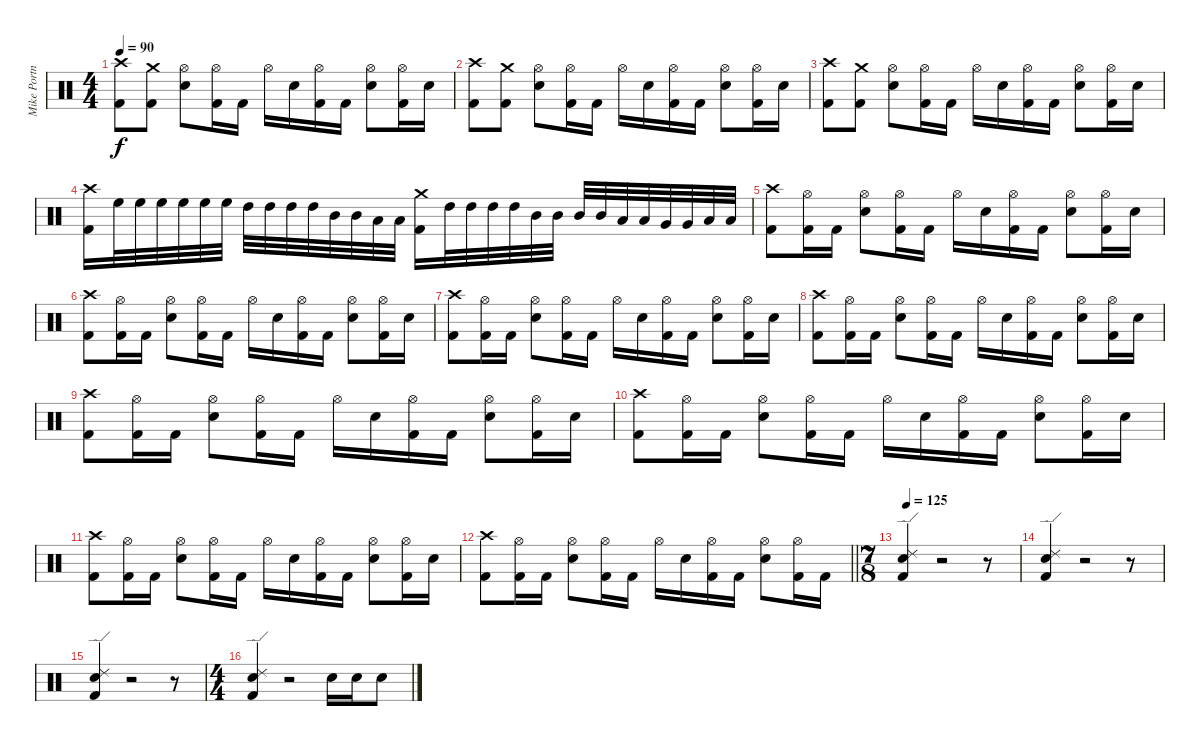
\track ("Mike Portnoy" "Mike Portn") {instrument percussion}
\staff {score}
\articulation defaults
\ts (4 4)
\tempo 90
\clef neutral
\ks c
("Crash high (hit)" "Kick (hit) 2").8{dy f} ("Crash medium (hit)" "Kick (hit) 2").8 ("Hi-Hat (open)" "Snare (hit) 2").8 ("Hi-Hat (open)" "Kick (hit) 2").16 "Kick (hit) 2".16 "Hi-Hat (open)".16 "Snare (hit) 2".16 ("Hi-Hat (open)" "Kick (hit) 2").16 "Kick (hit) 2".16 ("Hi-Hat (open)" "Snare (hit) 2").8 ("Hi-Hat (open)" "Kick (hit) 2").16 "Snare (hit) 2".16 |
("Crash high (hit)" "Kick (hit) 2").8 ("Crash medium (hit)" "Kick (hit) 2").8 ("Hi-Hat (open)" "Snare (hit) 2").8 ("Hi-Hat (open)" "Kick (hit) 2").16 "Kick (hit) 2".16 "Hi-Hat (open)".16 "Snare (hit) 2".16 ("Hi-Hat (open)" "Kick (hit) 2").16 "Kick (hit) 2".16 ("Hi-Hat (open)" "Snare (hit) 2").8 ("Hi-Hat (open)" "Kick (hit) 2").16 "Snare (hit) 2".16 |
("Crash high (hit)" "Kick (hit) 2").8 ("Crash medium (hit)" "Kick (hit) 2").8 ("Hi-Hat (open)" "Snare (hit) 2").8 ("Hi-Hat (open)" "Kick (hit) 2").16 "Kick (hit) 2".16 "Hi-Hat (open)".16 "Snare (hit) 2".16 ("Hi-Hat (open)" "Kick (hit) 2").16 "Kick (hit) 2".16 ("Hi-Hat (open)" "Snare (hit) 2").8 ("Hi-Hat (open)" "Kick (hit) 2").16 "Snare (hit) 2".16 |
("Crash high (hit)" "Kick (hit) 2").16 "High Floor Tom (hit)".32 "High Floor Tom (hit)".32 "High Floor Tom (hit)".32 "High Floor Tom (hit)".32 "High Floor Tom (hit)".32 "High Floor Tom (hit)".32 "High Tom (hit)".32 "High Tom (hit)".32 "High Tom (hit)".32 "High Tom (hit)".32 "Mid Tom (hit)".32 "Mid Tom (hit)".32 "Low Tom (hit)".32 "Low Tom (hit)".32 ("Crash medium (hit)" "Kick (hit) 2").16 "High Tom (hit)".32 "High Tom (hit)".32 "High Tom (hit)".32 "High Tom (hit)".32 "Mid Tom (hit)".32 "Mid Tom (hit)".32 "Mid Tom (hit)".32 "Mid Tom (hit)".32 "Low Tom (hit)".32 "Low Tom (hit)".32 "Very Low Tom (hit)".32 "Very Low Tom (hit)".32 "Low Floor Tom (hit)".32 "Low Floor Tom (hit)".32 |
("Crash high (hit)" "Kick (hit) 2").8 ("Hi-Hat (open)" "Kick (hit) 2").16 "Kick (hit) 2".16 ("Hi-Hat (open)" "Snare (hit) 2").8 ("Hi-Hat (open)" "Kick (hit) 2").16 "Kick (hit) 2".16 "Hi-Hat (open)".16 "Snare (hit) 2".16 ("Hi-Hat (open)" "Kick (hit) 2").16 "Kick (hit) 2".16 ("Hi-Hat (open)" "Snare (hit) 2").8 ("Hi-Hat (open)" "Kick (hit) 2").16 "Snare (hit) 2".16 |
("Crash high (hit)" "Kick (hit) 2").8 ("Hi-Hat (open)" "Kick (hit) 2").16 "Kick (hit) 2".16 ("Hi-Hat (open)" "Snare (hit) 2").8 ("Hi-Hat (open)" "Kick (hit) 2").16 "Kick (hit) 2".16 "Hi-Hat (open)".16 "Snare (hit) 2".16 ("Hi-Hat (open)" "Kick (hit) 2").16 "Kick (hit) 2".16 ("Hi-Hat (open)" "Snare (hit) 2").8 ("Hi-Hat (open)" "Kick (hit) 2").16 "Snare (hit) 2".16 |
("Crash high (hit)" "Kick (hit) 2").8 ("Hi-Hat (open)" "Kick (hit) 2").16 "Kick (hit) 2".16 ("Hi-Hat (open)" "Snare (hit) 2").8 ("Hi-Hat (open)" "Kick (hit) 2").16 "Kick (hit) 2".16 "Hi-Hat (open)".16 "Snare (hit) 2".16 ("Hi-Hat (open)" "Kick (hit) 2").16 "Kick (hit) 2".16 ("Hi-Hat (open)" "Snare (hit) 2").8 ("Hi-Hat (open)" "Kick (hit) 2").16 "Snare (hit) 2".16 |
("Crash high (hit)" "Kick (hit) 2").8 ("Hi-Hat (open)" "Kick (hit) 2").16 "Kick (hit) 2".16 ("Hi-Hat (open)" "Snare (hit) 2").8 ("Hi-Hat (open)" "Kick (hit) 2").16 "Kick (hit) 2".16 "Hi-Hat (open)".16 "Snare (hit) 2".16 ("Hi-Hat (open)" "Kick (hit) 2").16 "Kick (hit) 2".16 ("Hi-Hat (open)" "Snare (hit) 2").8 ("Hi-Hat (open)" "Kick (hit) 2").16 "Snare (hit) 2".16 |
("Crash high (hit)" "Kick (hit) 2").8 ("Hi-Hat (open)" "Kick (hit) 2").16 "Kick (hit) 2".16 ("Hi-Hat (open)" "Snare (hit) 2").8 ("Hi-Hat (open)" "Kick (hit) 2").16 "Kick (hit) 2".16 "Hi-Hat (open)".16 "Snare (hit) 2".16 ("Hi-Hat (open)" "Kick (hit) 2").16 "Kick (hit) 2".16 ("Hi-Hat (open)" "Snare (hit) 2").8 ("Hi-Hat (open)" "Kick (hit) 2").16 "Snare (hit) 2".16 |
("Crash high (hit)" "Kick (hit) 2").8 ("Hi-Hat (open)" "Kick (hit) 2").16 "Kick (hit) 2".16 ("Hi-Hat (open)" "Snare (hit) 2").8 ("Hi-Hat (open)" "Kick (hit) 2").16 "Kick (hit) 2".16 "Hi-Hat (open)".16 "Snare (hit) 2".16 ("Hi-Hat (open)" "Kick (hit) 2").16 "Kick (hit) 2".16 ("Hi-Hat (open)" "Snare (hit) 2").8 ("Hi-Hat (open)" "Kick (hit) 2").16 "Snare (hit) 2".16 |
("Crash high (hit)" "Kick (hit) 2").8 ("Hi-Hat (open)" "Kick (hit) 2").16 "Kick (hit) 2".16 ("Hi-Hat (open)" "Snare (hit) 2").8 ("Hi-Hat (open)" "Kick (hit) 2").16 "Kick (hit) 2".16 "Hi-Hat (open)".16 "Snare (hit) 2".16 ("Hi-Hat (open)" "Kick (hit) 2").16 "Kick (hit) 2".16 ("Hi-Hat (open)" "Snare (hit) 2").8 ("Hi-Hat (open)" "Kick (hit) 2").16 "Snare (hit) 2".16 |
\barLineRight lightlight
("Crash high (hit)" "Kick (hit) 2").8 ("Hi-Hat (open)" "Kick (hit) 2").16 "Kick (hit) 2".16 ("Hi-Hat (open)" "Snare (hit) 2").8 ("Hi-Hat (open)" "Kick (hit) 2").16 "Kick (hit) 2".16 "Hi-Hat (open)".16 "Snare (hit) 2".16 ("Hi-Hat (open)" "Kick (hit) 2").16 "Kick (hit) 2".16 ("Hi-Hat (open)" "Snare (hit) 2").8 ("Hi-Hat (open)" "Kick (hit) 2").16 "Kick (hit) 2".16 |
\ts (7 8)
\tempo 125
("Ride (edge) 2" "Snare (hit) 2" "Kick (hit) 2").4 r.2 r.8 |
("Ride (edge) 2" "Snare (hit) 2" "Kick (hit) 2").4 r.2 r.8 |
("Ride (edge) 2" "Snare (hit) 2" "Kick (hit) 2").4 r.2 r.8 |
\ts (4 4)
("Ride (edge) 2" "Snare (hit) 2" "Kick (hit) 2").4 r.2 "Snare (hit) 2".16 "Snare (hit) 2".16 "Snare (hit) 2".8
